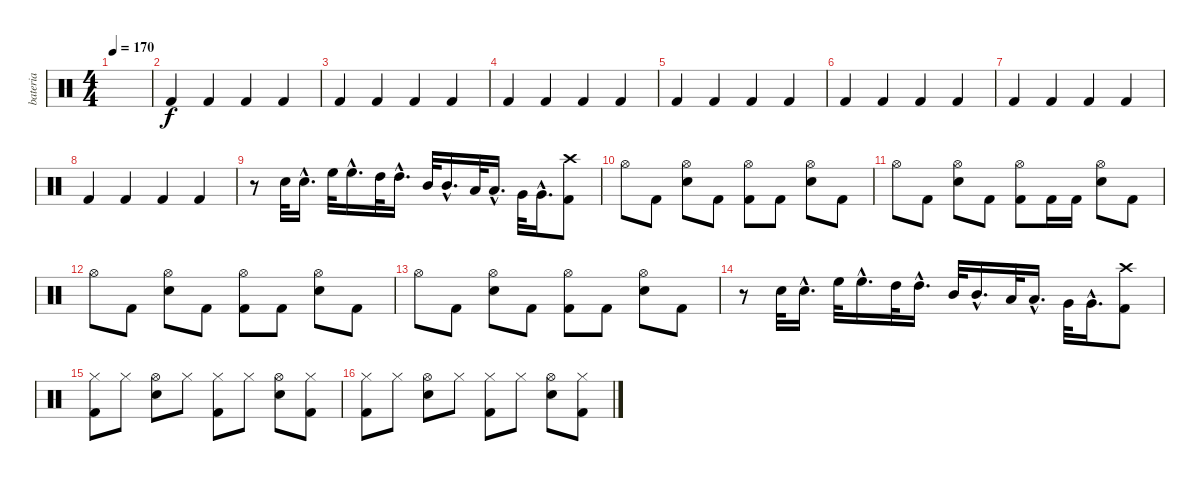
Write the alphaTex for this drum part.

\track ("bateria" "bateria") {instrument percussion}
\staff {score}
\articulation defaults
\ts (4 4)
\tempo 170
\clef neutral
\ks c
|
"Kick (hit) 2".4 "Kick (hit) 2".4 "Kick (hit) 2".4 "Kick (hit) 2".4 |
"Kick (hit) 2".4 "Kick (hit) 2".4 "Kick (hit) 2".4 "Kick (hit) 2".4 |
"Kick (hit) 2".4 "Kick (hit) 2".4 "Kick (hit) 2".4 "Kick (hit) 2".4 |
"Kick (hit) 2".4 "Kick (hit) 2".4 "Kick (hit) 2".4 "Kick (hit) 2".4 |
"Kick (hit) 2".4 "Kick (hit) 2".4 "Kick (hit) 2".4 "Kick (hit) 2".4 |
"Kick (hit) 2".4 "Kick (hit) 2".4 "Kick (hit) 2".4 "Kick (hit) 2".4 |
"Kick (hit) 2".4 "Kick (hit) 2".4 "Kick (hit) 2".4 "Kick (hit) 2".4 |
r.8 "Snare (hit) 2".32 "Snare (hit) 2"{hac}.16{d} "High Floor Tom (hit)".32 "High Floor Tom (hit)"{hac}.16{d} "High Tom (hit)".32 "High Tom (hit)"{hac}.16{d} "Mid Tom (hit)".32 "Mid Tom (hit)"{hac}.16{d} "Low Tom (hit)".32 "Low Tom (hit)"{hac}.16{d} "Very Low Tom (hit)".32 "Very Low Tom (hit)"{hac}.16{d} ("Crash high (hit)" "Kick (hit) 2").8 |
"Hi-Hat (open)".8 "Kick (hit) 2".8 ("Hi-Hat (open)" "Snare (hit) 2").8 "Kick (hit) 2".8 ("Hi-Hat (open)" "Kick (hit) 2").8 "Kick (hit) 2".8 ("Hi-Hat (open)" "Snare (hit) 2").8 "Kick (hit) 2".8 |
"Hi-Hat (open)".8 "Kick (hit) 2".8 ("Hi-Hat (open)" "Snare (hit) 2").8 "Kick (hit) 2".8 ("Hi-Hat (open)" "Kick (hit) 2").8 "Kick (hit) 2".16 "Kick (hit) 2".16 ("Hi-Hat (open)" "Snare (hit) 2").8 "Kick (hit) 2".8 |
"Hi-Hat (open)".8 "Kick (hit) 2".8 ("Hi-Hat (open)" "Snare (hit) 2").8 "Kick (hit) 2".8 ("Hi-Hat (open)" "Kick (hit) 2").8 "Kick (hit) 2".8 ("Hi-Hat (open)" "Snare (hit) 2").8 "Kick (hit) 2".8 |
"Hi-Hat (open)".8 "Kick (hit) 2".8 ("Hi-Hat (open)" "Snare (hit) 2").8 "Kick (hit) 2".8 ("Hi-Hat (open)" "Kick (hit) 2").8 "Kick (hit) 2".8 ("Hi-Hat (open)" "Snare (hit) 2").8 "Kick (hit) 2".8 |
r.8 "Snare (hit) 2".32 "Snare (hit) 2"{hac}.16{d} "High Floor Tom (hit)".32 "High Floor Tom (hit)"{hac}.16{d} "High Tom (hit)".32 "High Tom (hit)"{hac}.16{d} "Mid Tom (hit)".32 "Mid Tom (hit)"{hac}.16{d} "Low Tom (hit)".32 "Low Tom (hit)"{hac}.16{d} "Very Low Tom (hit)".32 "Very Low Tom (hit)"{hac}.16{d} ("Crash high (hit)" "Kick (hit) 2").8 |
("Hi-Hat (closed)" "Kick (hit) 2").8 "Hi-Hat (closed)".8 ("Hi-Hat (open)" "Snare (hit) 2").8 "Hi-Hat (closed)".8 ("Hi-Hat (closed)" "Kick (hit) 2").8 "Hi-Hat (closed)".8 ("Hi-Hat (open)" "Snare (hit) 2").8 ("Hi-Hat (closed)" "Kick (hit) 2").8 |
("Hi-Hat (closed)" "Kick (hit) 2").8 "Hi-Hat (closed)".8 ("Hi-Hat (open)" "Snare (hit) 2").8 "Hi-Hat (closed)".8 ("Hi-Hat (closed)" "Kick (hit) 2").8 "Hi-Hat (closed)".8 ("Hi-Hat (open)" "Snare (hit) 2").8 ("Hi-Hat (closed)" "Kick (hit) 2").8
